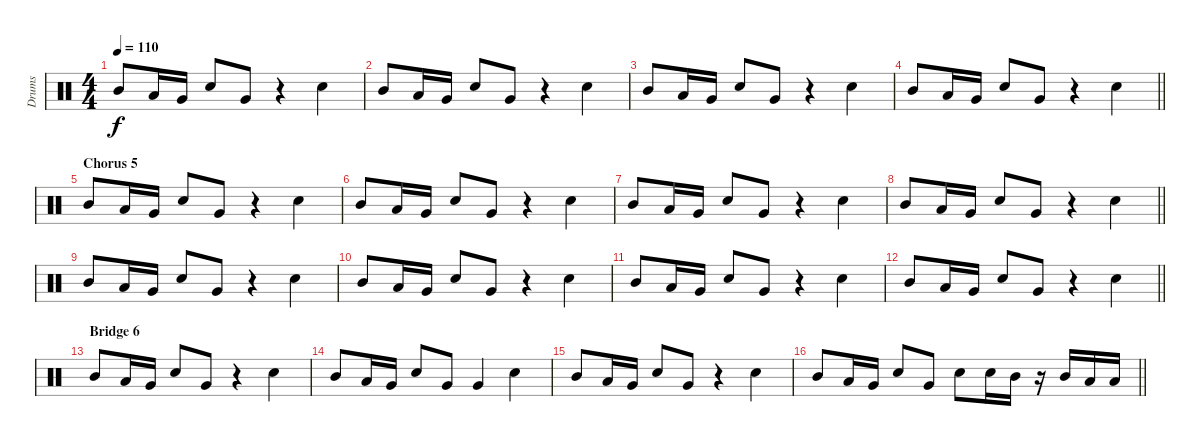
\track ("Drums" "Drums") {instrument percussion}
\staff {score}
\articulation defaults
\ts (4 4)
\tempo 110
\clef neutral
\ks c "Mid Tom (hit)".8{dy f} "Low Tom (hit)".16 "Very Low Tom (hit)".16 "Snare (hit) 2".8 "Very Low Tom (hit)".8
r.4 "Snare (hit) 2".4 |
"Mid Tom (hit)".8 "Low Tom (hit)".16 "Very Low Tom (hit)".16 "Snare (hit) 2".8 "Very Low Tom (hit)".8 r.4 "Snare (hit) 2".4 |
"Mid Tom (hit)".8 "Low Tom (hit)".16 "Very Low Tom (hit)".16 "Snare (hit) 2".8 "Very Low Tom (hit)".8 r.4 "Snare (hit) 2".4 |
\barLineRight lightlight "Mid Tom (hit)".8 "Low Tom (hit)".16 "Very Low Tom (hit)".16 "Snare (hit) 2".8 "Very Low Tom (hit)".8
r.4 "Snare (hit) 2".4 |
\section ("" "Chorus 5")
"Mid Tom (hit)".8 "Low Tom (hit)".16 "Very Low Tom (hit)".16 "Snare (hit) 2".8 "Very Low Tom (hit)".8 r.4 "Snare (hit) 2".4 |
"Mid Tom (hit)".8 "Low Tom (hit)".16 "Very Low Tom (hit)".16 "Snare (hit) 2".8 "Very Low Tom (hit)".8 r.4 "Snare (hit) 2".4 |
"Mid Tom (hit)".8 "Low Tom (hit)".16 "Very Low Tom (hit)".16 "Snare (hit) 2".8 "Very Low Tom (hit)".8 r.4 "Snare (hit) 2".4 |
\barLineRight lightlight "Mid Tom (hit)".8 "Low Tom (hit)".16 "Very Low Tom (hit)".16 "Snare (hit) 2".8 "Very Low Tom (hit)".8
r.4 "Snare (hit) 2".4 |
"Mid Tom (hit)".8 "Low Tom (hit)".16 "Very Low Tom (hit)".16 "Snare (hit) 2".8 "Very Low Tom (hit)".8 r.4 "Snare (hit) 2".4 |
"Mid Tom (hit)".8 "Low Tom (hit)".16 "Very Low Tom (hit)".16 "Snare (hit) 2".8 "Very Low Tom (hit)".8 r.4 "Snare (hit) 2".4 |
"Mid Tom (hit)".8 "Low Tom (hit)".16 "Very Low Tom (hit)".16 "Snare (hit) 2".8 "Very Low Tom (hit)".8 r.4 "Snare (hit) 2".4 |
\barLineRight lightlight "Mid Tom (hit)".8 "Low Tom (hit)".16 "Very Low Tom (hit)".16 "Snare (hit) 2".8 "Very Low Tom (hit)".8
r.4 "Snare (hit) 2".4 |
\section ("" "Bridge 6")
"Mid Tom (hit)".8 "Low Tom (hit)".16 "Very Low Tom (hit)".16 "Snare (hit) 2".8 "Very Low Tom (hit)".8 r.4 "Snare (hit) 2".4 |
"Mid Tom (hit)".8 "Low Tom (hit)".16 "Very Low Tom (hit)".16 "Snare (hit) 2".8 "Very Low Tom (hit)".8 "Very Low Tom (hit)".4 "Snare (hit) 2".4 |
"Mid Tom (hit)".8 "Low Tom (hit)".16 "Very Low Tom (hit)".16 "Snare (hit) 2".8 "Very Low Tom (hit)".8 r.4 "Snare (hit) 2".4 |
\barLineRight lightlight "Mid Tom (hit)".8 "Low Tom (hit)".16 "Very Low Tom (hit)".16 "Snare (hit) 2".8 "Very Low Tom (hit)".8 "Snare (hit) 2".8 "Snare (hit) 2".16 "Mid Tom (hit)".16
r.16 "Mid Tom (hit)".16 "Low Tom (hit)".16 "Low Tom (hit)".16
